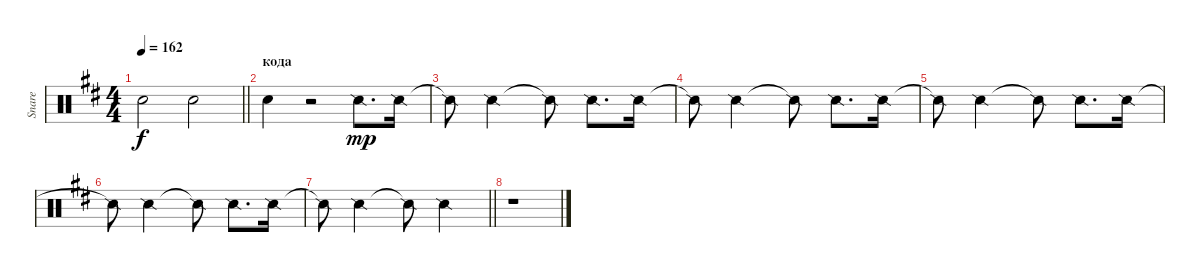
\track ("Snare" "Snare") {instrument percussion}
\staff {score}
\articulation defaults
\ts (4 4)
\tempo 162
\clef neutral
\barLineRight lightlight
\ks bminor "Electric Snare (hit)".2{dy f} "Electric Snare (hit)".2
|
\section ("" "кода")
"Electric Snare (hit)".4 r.2 "Snare (side stick) 2".8{d dy mp} "Snare (side stick) 2".16 |
"Snare (side stick) 2"{t}.8 "Snare (side stick) 2".2 "Snare (side stick) 2"{t}.8 "Snare (side stick) 2".8{d} "Snare (side stick) 2".16 |
"Snare (side stick) 2"{t}.8 "Snare (side stick) 2".2 "Snare (side stick) 2"{t}.8 "Snare (side stick) 2".8{d} "Snare (side stick) 2".16 |
"Snare (side stick) 2"{t}.8 "Snare (side stick) 2".2 "Snare (side stick) 2"{t}.8 "Snare (side stick) 2".8{d} "Snare (side stick) 2".16 |
"Snare (side stick) 2"{t}.8 "Snare (side stick) 2".2 "Snare (side stick) 2"{t}.8 "Snare (side stick) 2".8{d} "Snare (side stick) 2".16 |
\barLineRight lightlight "Snare (side stick) 2"{t}.8 "Snare (side stick) 2".2 "Snare (side stick) 2"{t}.8 "Snare (side stick) 2".4
|
r.1
